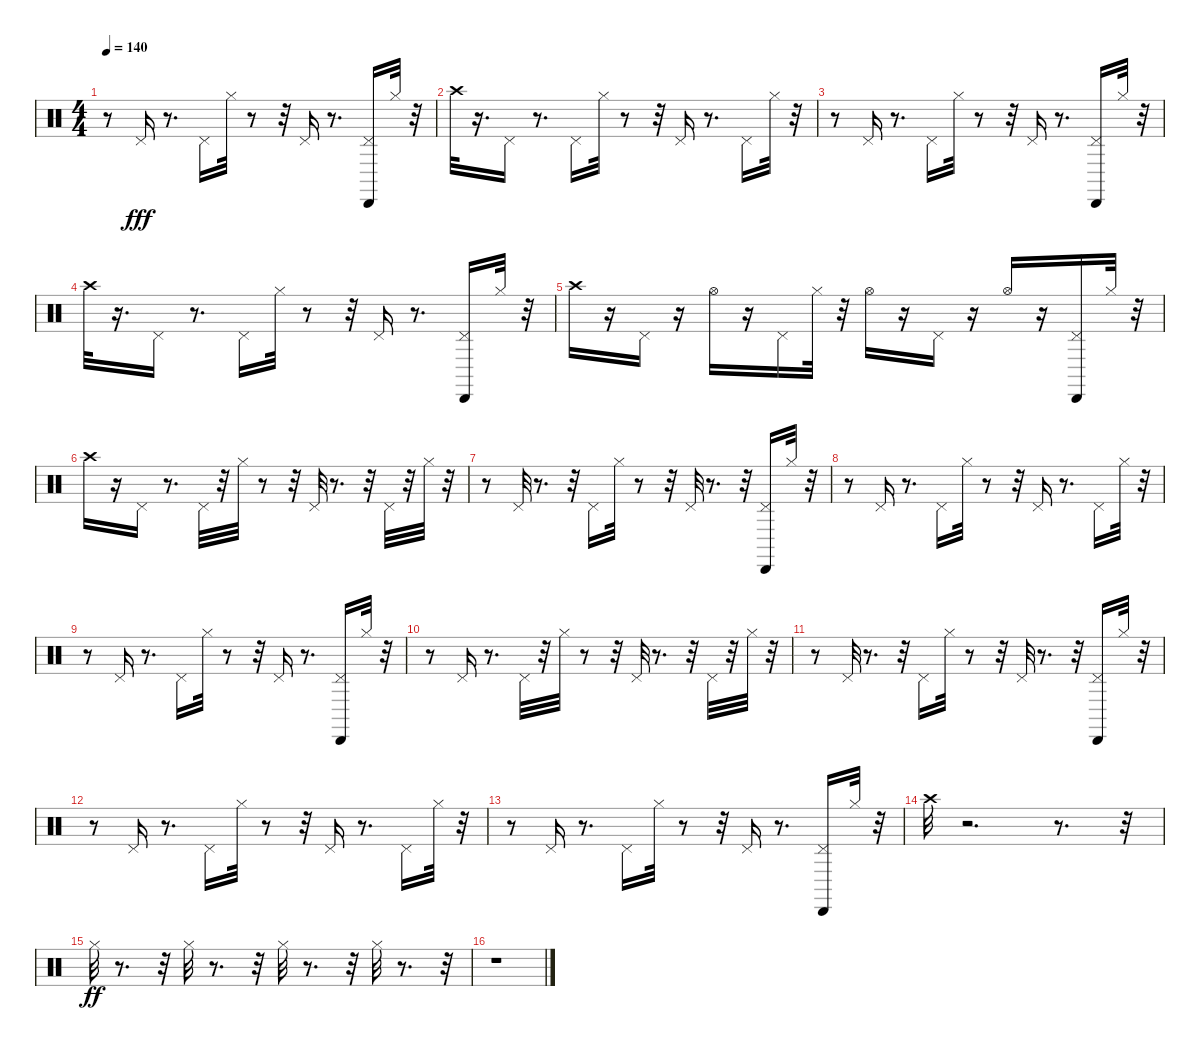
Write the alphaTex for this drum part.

\track "" {instrument percussion}
\staff {score}
\articulation defaults
\ts (4 4)
\tempo 140
\clef neutral
\ks c
r.8{dy fff} "Pedal Hi-Hat (hit)".16 r.8{d} "Pedal Hi-Hat (hit)".16 "Hi-Hat (closed)".32 r.8 r.32 "Pedal Hi-Hat (hit)".16 r.8{d} ("Cabasa (hit)" "Pedal Hi-Hat (hit)").16 "Hi-Hat (closed)".32 r.32 |
"Crash high (hit)".32 r.16{d} "Pedal Hi-Hat (hit)".16 r.8{d} "Pedal Hi-Hat (hit)".16 "Hi-Hat (closed)".32 r.8 r.32 "Pedal Hi-Hat (hit)".16 r.8{d} "Pedal Hi-Hat (hit)".16 "Hi-Hat (closed)".32 r.32 |
r.8 "Pedal Hi-Hat (hit)".16 r.8{d} "Pedal Hi-Hat (hit)".16 "Hi-Hat (closed)".32 r.8 r.32 "Pedal Hi-Hat (hit)".16 r.8{d} ("Cabasa (hit)" "Pedal Hi-Hat (hit)").16 "Hi-Hat (closed)".32 r.32 |
"Crash high (hit)".32 r.16{d} "Pedal Hi-Hat (hit)".16 r.8{d} "Pedal Hi-Hat (hit)".16 "Hi-Hat (closed)".32 r.8 r.32 "Pedal Hi-Hat (hit)".16 r.8{d} ("Cabasa (hit)" "Pedal Hi-Hat (hit)").16 "Hi-Hat (closed)".32 r.32 |
"Crash high (hit)".16 r.16 "Pedal Hi-Hat (hit)".16 r.16 "Hi-Hat (open)".16 r.16 "Pedal Hi-Hat (hit)".16 "Hi-Hat (closed)".32 r.32 "Hi-Hat (open)".16 r.16 "Pedal Hi-Hat (hit)".16 r.16 "Hi-Hat (open)".16 r.16 ("Cabasa (hit)" "Pedal Hi-Hat (hit)").16 "Hi-Hat (closed)".32 r.32 |
"Crash high (hit)".16 r.16 "Pedal Hi-Hat (hit)".16 r.8{d} "Pedal Hi-Hat (hit)".32 r.32 "Hi-Hat (closed)".32 r.8 r.32 "Pedal Hi-Hat (hit)".32 r.8{d} r.32 "Pedal Hi-Hat (hit)".32 r.32 "Hi-Hat (closed)".32 r.32 |
r.8 "Pedal Hi-Hat (hit)".32 r.8{d} r.32 "Pedal Hi-Hat (hit)".16 "Hi-Hat (closed)".32 r.8 r.32 "Pedal Hi-Hat (hit)".32 r.8{d} r.32 ("Cabasa (hit)" "Pedal Hi-Hat (hit)").16 "Hi-Hat (closed)".32 r.32 |
r.8 "Pedal Hi-Hat (hit)".16 r.8{d} "Pedal Hi-Hat (hit)".16 "Hi-Hat (closed)".32 r.8 r.32 "Pedal Hi-Hat (hit)".16 r.8{d} "Pedal Hi-Hat (hit)".16 "Hi-Hat (closed)".32 r.32 |
r.8 "Pedal Hi-Hat (hit)".16 r.8{d} "Pedal Hi-Hat (hit)".16 "Hi-Hat (closed)".32 r.8 r.32 "Pedal Hi-Hat (hit)".16 r.8{d} ("Cabasa (hit)" "Pedal Hi-Hat (hit)").16 "Hi-Hat (closed)".32 r.32 |
r.8 "Pedal Hi-Hat (hit)".16 r.8{d} "Pedal Hi-Hat (hit)".32 r.32 "Hi-Hat (closed)".32 r.8 r.32 "Pedal Hi-Hat (hit)".32 r.8{d} r.32 "Pedal Hi-Hat (hit)".32 r.32 "Hi-Hat (closed)".32 r.32 |
r.8 "Pedal Hi-Hat (hit)".32 r.8{d} r.32 "Pedal Hi-Hat (hit)".16 "Hi-Hat (closed)".32 r.8 r.32 "Pedal Hi-Hat (hit)".32 r.8{d} r.32 ("Cabasa (hit)" "Pedal Hi-Hat (hit)").16 "Hi-Hat (closed)".32 r.32 |
r.8 "Pedal Hi-Hat (hit)".16 r.8{d} "Pedal Hi-Hat (hit)".16 "Hi-Hat (closed)".32 r.8 r.32 "Pedal Hi-Hat (hit)".16 r.8{d} "Pedal Hi-Hat (hit)".16 "Hi-Hat (closed)".32 r.32 |
r.8 "Pedal Hi-Hat (hit)".16 r.8{d} "Pedal Hi-Hat (hit)".16 "Hi-Hat (closed)".32 r.8 r.32 "Pedal Hi-Hat (hit)".16 r.8{d} ("Cabasa (hit)" "Pedal Hi-Hat (hit)").16 "Hi-Hat (closed)".32 r.32 |
"Crash high (hit)".32 r.2{d} r.8{d} r.32 |
"Hi-Hat (closed)".32{dy ff} r.8{d} r.32 "Hi-Hat (closed)".32 r.8{d} r.32 "Hi-Hat (closed)".32 r.8{d} r.32 "Hi-Hat (closed)".32 r.8{d} r.32 |
r.1
